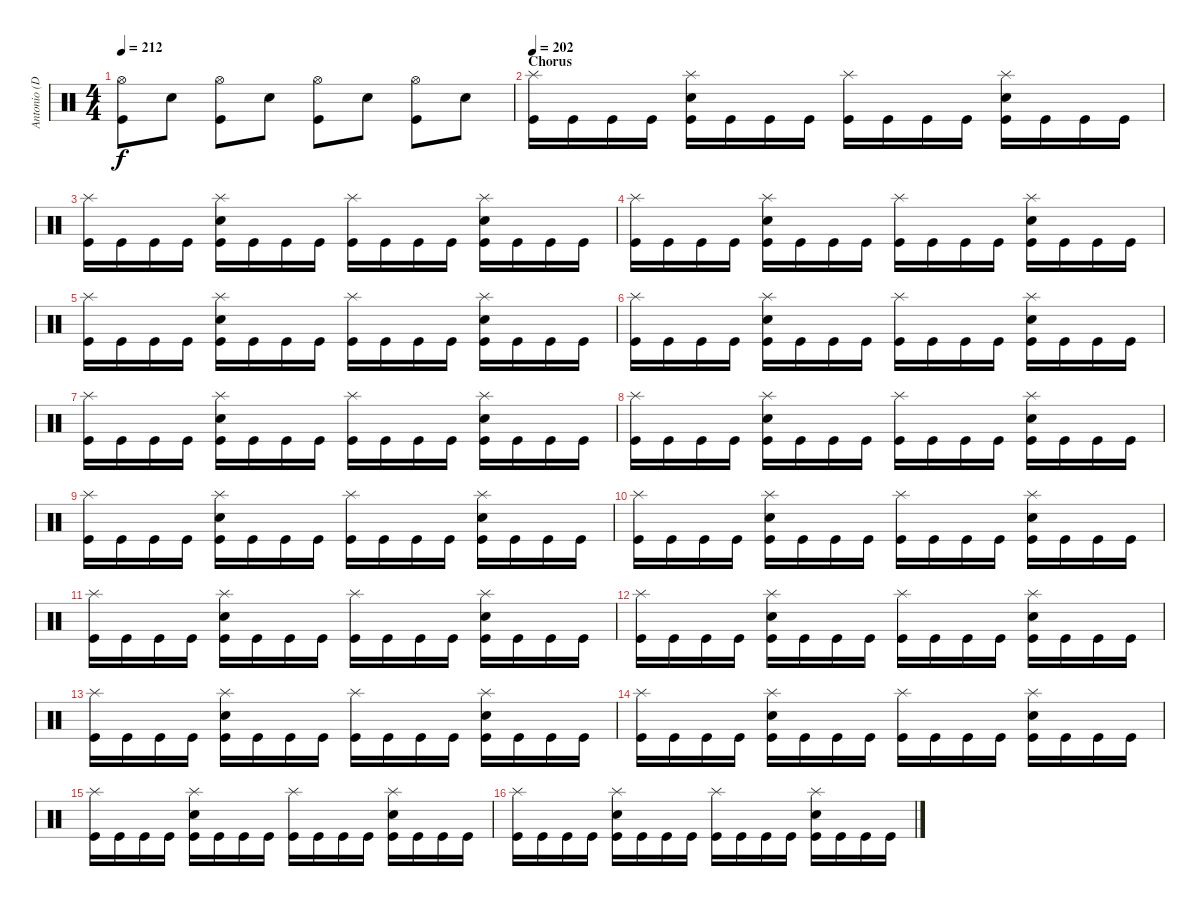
\track ("Antonio (Drums)" "Antonio (D") {instrument percussion}
\staff {score}
\articulation defaults
\ts (4 4)
\tempo 212
\clef neutral
\ks c
("Hi-Hat (open)" "Kick (hit)").8{dy f} "Electric Snare (hit)".8 ("Hi-Hat (open)" "Kick (hit)").8 "Electric Snare (hit)".8 ("Hi-Hat (open)" "Kick (hit)").8 "Electric Snare (hit)".8 ("Hi-Hat (open)" "Kick (hit)").8 "Electric Snare (hit)".8 |
\section ("" "Chorus")
\tempo 202
("Splash (hit)" "Kick (hit)").16 "Kick (hit)".16 "Kick (hit)".16 "Kick (hit)".16 ("Splash (hit)" "Electric Snare (hit)" "Kick (hit)").16 "Kick (hit)".16 "Kick (hit)".16 "Kick (hit)".16 ("Splash (hit)" "Kick (hit)").16 "Kick (hit)".16 "Kick (hit)".16 "Kick (hit)".16 ("Splash (hit)" "Electric Snare (hit)" "Kick (hit)").16 "Kick (hit)".16 "Kick (hit)".16 "Kick (hit)".16 |
("Splash (hit)" "Kick (hit)").16 "Kick (hit)".16 "Kick (hit)".16 "Kick (hit)".16 ("Splash (hit)" "Electric Snare (hit)" "Kick (hit)").16 "Kick (hit)".16 "Kick (hit)".16 "Kick (hit)".16 ("Splash (hit)" "Kick (hit)").16 "Kick (hit)".16 "Kick (hit)".16 "Kick (hit)".16 ("Splash (hit)" "Electric Snare (hit)" "Kick (hit)").16 "Kick (hit)".16 "Kick (hit)".16 "Kick (hit)".16 |
("Splash (hit)" "Kick (hit)").16 "Kick (hit)".16 "Kick (hit)".16 "Kick (hit)".16 ("Splash (hit)" "Electric Snare (hit)" "Kick (hit)").16 "Kick (hit)".16 "Kick (hit)".16 "Kick (hit)".16 ("Splash (hit)" "Kick (hit)").16 "Kick (hit)".16 "Kick (hit)".16 "Kick (hit)".16 ("Splash (hit)" "Electric Snare (hit)" "Kick (hit)").16 "Kick (hit)".16 "Kick (hit)".16 "Kick (hit)".16 |
("Splash (hit)" "Kick (hit)").16 "Kick (hit)".16 "Kick (hit)".16 "Kick (hit)".16 ("Splash (hit)" "Electric Snare (hit)" "Kick (hit)").16 "Kick (hit)".16 "Kick (hit)".16 "Kick (hit)".16 ("Splash (hit)" "Kick (hit)").16 "Kick (hit)".16 "Kick (hit)".16 "Kick (hit)".16 ("Splash (hit)" "Electric Snare (hit)" "Kick (hit)").16 "Kick (hit)".16 "Kick (hit)".16 "Kick (hit)".16 |
("Splash (hit)" "Kick (hit)").16 "Kick (hit)".16 "Kick (hit)".16 "Kick (hit)".16 ("Splash (hit)" "Electric Snare (hit)" "Kick (hit)").16 "Kick (hit)".16 "Kick (hit)".16 "Kick (hit)".16 ("Splash (hit)" "Kick (hit)").16 "Kick (hit)".16 "Kick (hit)".16 "Kick (hit)".16 ("Splash (hit)" "Electric Snare (hit)" "Kick (hit)").16 "Kick (hit)".16 "Kick (hit)".16 "Kick (hit)".16 |
("Splash (hit)" "Kick (hit)").16 "Kick (hit)".16 "Kick (hit)".16 "Kick (hit)".16 ("Splash (hit)" "Electric Snare (hit)" "Kick (hit)").16 "Kick (hit)".16 "Kick (hit)".16 "Kick (hit)".16 ("Splash (hit)" "Kick (hit)").16 "Kick (hit)".16 "Kick (hit)".16 "Kick (hit)".16 ("Splash (hit)" "Electric Snare (hit)" "Kick (hit)").16 "Kick (hit)".16 "Kick (hit)".16 "Kick (hit)".16 |
("Splash (hit)" "Kick (hit)").16 "Kick (hit)".16 "Kick (hit)".16 "Kick (hit)".16 ("Splash (hit)" "Electric Snare (hit)" "Kick (hit)").16 "Kick (hit)".16 "Kick (hit)".16 "Kick (hit)".16 ("Splash (hit)" "Kick (hit)").16 "Kick (hit)".16 "Kick (hit)".16 "Kick (hit)".16 ("Splash (hit)" "Electric Snare (hit)" "Kick (hit)").16 "Kick (hit)".16 "Kick (hit)".16 "Kick (hit)".16 |
("Splash (hit)" "Kick (hit)").16 "Kick (hit)".16 "Kick (hit)".16 "Kick (hit)".16 ("Splash (hit)" "Electric Snare (hit)" "Kick (hit)").16 "Kick (hit)".16 "Kick (hit)".16 "Kick (hit)".16 ("Splash (hit)" "Kick (hit)").16 "Kick (hit)".16 "Kick (hit)".16 "Kick (hit)".16 ("Splash (hit)" "Electric Snare (hit)" "Kick (hit)").16 "Kick (hit)".16 "Kick (hit)".16 "Kick (hit)".16 |
("Splash (hit)" "Kick (hit)").16 "Kick (hit)".16 "Kick (hit)".16 "Kick (hit)".16 ("Splash (hit)" "Electric Snare (hit)" "Kick (hit)").16 "Kick (hit)".16 "Kick (hit)".16 "Kick (hit)".16 ("Splash (hit)" "Kick (hit)").16 "Kick (hit)".16 "Kick (hit)".16 "Kick (hit)".16 ("Splash (hit)" "Electric Snare (hit)" "Kick (hit)").16 "Kick (hit)".16 "Kick (hit)".16 "Kick (hit)".16 |
("Splash (hit)" "Kick (hit)").16 "Kick (hit)".16 "Kick (hit)".16 "Kick (hit)".16 ("Splash (hit)" "Electric Snare (hit)" "Kick (hit)").16 "Kick (hit)".16 "Kick (hit)".16 "Kick (hit)".16 ("Splash (hit)" "Kick (hit)").16 "Kick (hit)".16 "Kick (hit)".16 "Kick (hit)".16 ("Splash (hit)" "Electric Snare (hit)" "Kick (hit)").16 "Kick (hit)".16 "Kick (hit)".16 "Kick (hit)".16 |
("Splash (hit)" "Kick (hit)").16 "Kick (hit)".16 "Kick (hit)".16 "Kick (hit)".16 ("Splash (hit)" "Electric Snare (hit)" "Kick (hit)").16 "Kick (hit)".16 "Kick (hit)".16 "Kick (hit)".16 ("Splash (hit)" "Kick (hit)").16 "Kick (hit)".16 "Kick (hit)".16 "Kick (hit)".16 ("Splash (hit)" "Electric Snare (hit)" "Kick (hit)").16 "Kick (hit)".16 "Kick (hit)".16 "Kick (hit)".16 |
("Splash (hit)" "Kick (hit)").16 "Kick (hit)".16 "Kick (hit)".16 "Kick (hit)".16 ("Splash (hit)" "Electric Snare (hit)" "Kick (hit)").16 "Kick (hit)".16 "Kick (hit)".16 "Kick (hit)".16 ("Splash (hit)" "Kick (hit)").16 "Kick (hit)".16 "Kick (hit)".16 "Kick (hit)".16 ("Splash (hit)" "Electric Snare (hit)" "Kick (hit)").16 "Kick (hit)".16 "Kick (hit)".16 "Kick (hit)".16 |
("Splash (hit)" "Kick (hit)").16 "Kick (hit)".16 "Kick (hit)".16 "Kick (hit)".16 ("Splash (hit)" "Electric Snare (hit)" "Kick (hit)").16 "Kick (hit)".16 "Kick (hit)".16 "Kick (hit)".16 ("Splash (hit)" "Kick (hit)").16 "Kick (hit)".16 "Kick (hit)".16 "Kick (hit)".16 ("Splash (hit)" "Electric Snare (hit)" "Kick (hit)").16 "Kick (hit)".16 "Kick (hit)".16 "Kick (hit)".16 |
("Splash (hit)" "Kick (hit)").16 "Kick (hit)".16 "Kick (hit)".16 "Kick (hit)".16 ("Splash (hit)" "Electric Snare (hit)" "Kick (hit)").16 "Kick (hit)".16 "Kick (hit)".16 "Kick (hit)".16 ("Splash (hit)" "Kick (hit)").16 "Kick (hit)".16 "Kick (hit)".16 "Kick (hit)".16 ("Splash (hit)" "Electric Snare (hit)" "Kick (hit)").16 "Kick (hit)".16 "Kick (hit)".16 "Kick (hit)".16 |
("Splash (hit)" "Kick (hit)").16 "Kick (hit)".16 "Kick (hit)".16 "Kick (hit)".16 ("Splash (hit)" "Electric Snare (hit)" "Kick (hit)").16 "Kick (hit)".16 "Kick (hit)".16 "Kick (hit)".16 ("Splash (hit)" "Kick (hit)").16 "Kick (hit)".16 "Kick (hit)".16 "Kick (hit)".16 ("Splash (hit)" "Electric Snare (hit)" "Kick (hit)").16 "Kick (hit)".16 "Kick (hit)".16 "Kick (hit)".16
